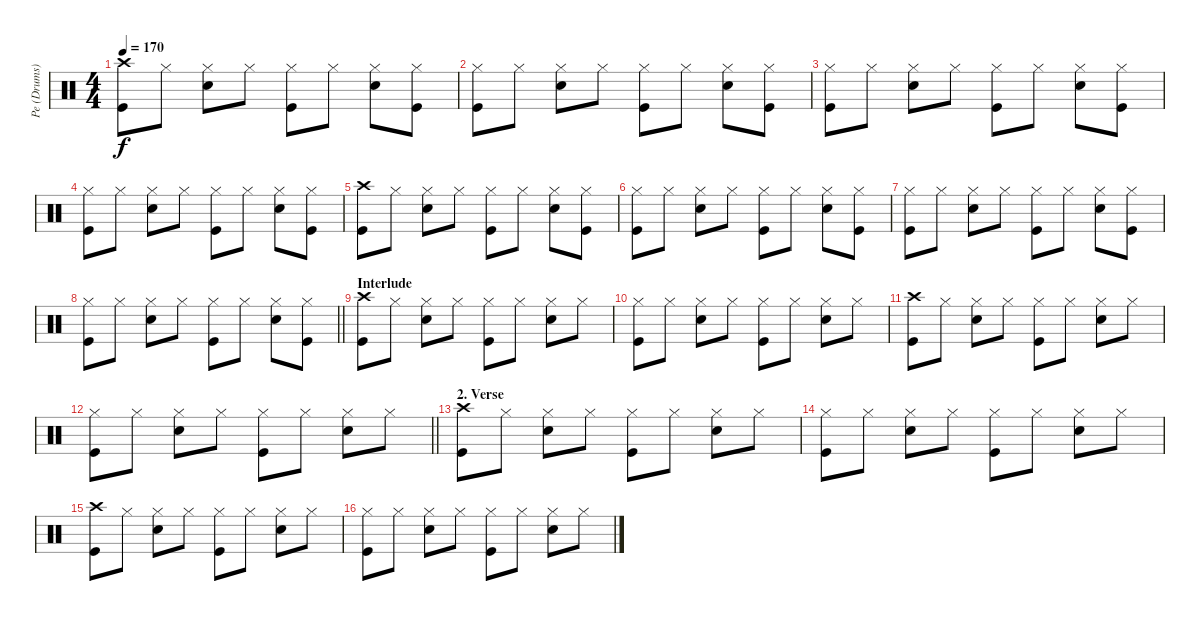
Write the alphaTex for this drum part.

\track ("Pe (Drums)" "Pe (Drums)") {instrument percussion}
\staff {score}
\articulation defaults
\ts (4 4)
\tempo 170
\clef neutral
\ks c
("Crash high (hit)" "Kick (hit)").8{dy f} "Hi-Hat (closed)".8 ("Hi-Hat (closed)" "Snare (hit) 2").8 "Hi-Hat (closed)".8 ("Hi-Hat (closed)" "Kick (hit)").8 "Hi-Hat (closed)".8 ("Hi-Hat (closed)" "Snare (hit) 2").8 ("Hi-Hat (closed)" "Kick (hit)").8 |
("Hi-Hat (closed)" "Kick (hit)").8 "Hi-Hat (closed)".8 ("Hi-Hat (closed)" "Snare (hit) 2").8 "Hi-Hat (closed)".8 ("Hi-Hat (closed)" "Kick (hit)").8 "Hi-Hat (closed)".8 ("Hi-Hat (closed)" "Snare (hit) 2").8 ("Hi-Hat (closed)" "Kick (hit)").8 |
("Hi-Hat (closed)" "Kick (hit)").8 "Hi-Hat (closed)".8 ("Hi-Hat (closed)" "Snare (hit) 2").8 "Hi-Hat (closed)".8 ("Hi-Hat (closed)" "Kick (hit)").8 "Hi-Hat (closed)".8 ("Hi-Hat (closed)" "Snare (hit) 2").8 ("Hi-Hat (closed)" "Kick (hit)").8 |
("Hi-Hat (closed)" "Kick (hit)").8 "Hi-Hat (closed)".8 ("Hi-Hat (closed)" "Snare (hit) 2").8 "Hi-Hat (closed)".8 ("Hi-Hat (closed)" "Kick (hit)").8 "Hi-Hat (closed)".8 ("Hi-Hat (closed)" "Snare (hit) 2").8 ("Hi-Hat (closed)" "Kick (hit)").8 |
("Crash high (hit)" "Kick (hit)").8 "Hi-Hat (closed)".8 ("Hi-Hat (closed)" "Snare (hit) 2").8 "Hi-Hat (closed)".8 ("Hi-Hat (closed)" "Kick (hit)").8 "Hi-Hat (closed)".8 ("Hi-Hat (closed)" "Snare (hit) 2").8 ("Hi-Hat (closed)" "Kick (hit)").8 |
("Hi-Hat (closed)" "Kick (hit)").8 "Hi-Hat (closed)".8 ("Hi-Hat (closed)" "Snare (hit) 2").8 "Hi-Hat (closed)".8 ("Hi-Hat (closed)" "Kick (hit)").8 "Hi-Hat (closed)".8 ("Hi-Hat (closed)" "Snare (hit) 2").8 ("Hi-Hat (closed)" "Kick (hit)").8 |
("Hi-Hat (closed)" "Kick (hit)").8 "Hi-Hat (closed)".8 ("Hi-Hat (closed)" "Snare (hit) 2").8 "Hi-Hat (closed)".8 ("Hi-Hat (closed)" "Kick (hit)").8 "Hi-Hat (closed)".8 ("Hi-Hat (closed)" "Snare (hit) 2").8 ("Hi-Hat (closed)" "Kick (hit)").8 |
\barLineRight lightlight
("Hi-Hat (closed)" "Kick (hit)").8 "Hi-Hat (closed)".8 ("Hi-Hat (closed)" "Snare (hit) 2").8 "Hi-Hat (closed)".8 ("Hi-Hat (closed)" "Kick (hit)").8 "Hi-Hat (closed)".8 ("Hi-Hat (closed)" "Snare (hit) 2").8 ("Hi-Hat (closed)" "Kick (hit)").8 |
\section ("" "Interlude")
("Crash high (hit)" "Kick (hit)").8 "Hi-Hat (closed)".8 ("Hi-Hat (closed)" "Snare (hit) 2").8 "Hi-Hat (closed)".8 ("Hi-Hat (closed)" "Kick (hit)").8 "Hi-Hat (closed)".8 ("Hi-Hat (closed)" "Snare (hit) 2").8 "Hi-Hat (closed)".8 |
("Hi-Hat (closed)" "Kick (hit)").8 "Hi-Hat (closed)".8 ("Hi-Hat (closed)" "Snare (hit) 2").8 "Hi-Hat (closed)".8 ("Hi-Hat (closed)" "Kick (hit)").8 "Hi-Hat (closed)".8 ("Hi-Hat (closed)" "Snare (hit) 2").8 "Hi-Hat (closed)".8 |
("Crash high (hit)" "Kick (hit)").8 "Hi-Hat (closed)".8 ("Hi-Hat (closed)" "Snare (hit) 2").8 "Hi-Hat (closed)".8 ("Hi-Hat (closed)" "Kick (hit)").8 "Hi-Hat (closed)".8 ("Hi-Hat (closed)" "Snare (hit) 2").8 "Hi-Hat (closed)".8 |
\barLineRight lightlight
("Hi-Hat (closed)" "Kick (hit)").8 "Hi-Hat (closed)".8 ("Hi-Hat (closed)" "Snare (hit) 2").8 "Hi-Hat (closed)".8 ("Hi-Hat (closed)" "Kick (hit)").8 "Hi-Hat (closed)".8 ("Hi-Hat (closed)" "Snare (hit) 2").8 "Hi-Hat (closed)".8 |
\section ("" "2. Verse")
("Crash high (hit)" "Kick (hit)").8 "Hi-Hat (closed)".8 ("Hi-Hat (closed)" "Snare (hit) 2").8 "Hi-Hat (closed)".8 ("Hi-Hat (closed)" "Kick (hit)").8 "Hi-Hat (closed)".8 ("Hi-Hat (closed)" "Snare (hit) 2").8 "Hi-Hat (closed)".8 |
("Hi-Hat (closed)" "Kick (hit)").8 "Hi-Hat (closed)".8 ("Hi-Hat (closed)" "Snare (hit) 2").8 "Hi-Hat (closed)".8 ("Hi-Hat (closed)" "Kick (hit)").8 "Hi-Hat (closed)".8 ("Hi-Hat (closed)" "Snare (hit) 2").8 "Hi-Hat (closed)".8 |
("Crash high (hit)" "Kick (hit)").8 "Hi-Hat (closed)".8 ("Hi-Hat (closed)" "Snare (hit) 2").8 "Hi-Hat (closed)".8 ("Hi-Hat (closed)" "Kick (hit)").8 "Hi-Hat (closed)".8 ("Hi-Hat (closed)" "Snare (hit) 2").8 "Hi-Hat (closed)".8 |
("Hi-Hat (closed)" "Kick (hit)").8 "Hi-Hat (closed)".8 ("Hi-Hat (closed)" "Snare (hit) 2").8 "Hi-Hat (closed)".8 ("Hi-Hat (closed)" "Kick (hit)").8 "Hi-Hat (closed)".8 ("Hi-Hat (closed)" "Snare (hit) 2").8 "Hi-Hat (closed)".8
